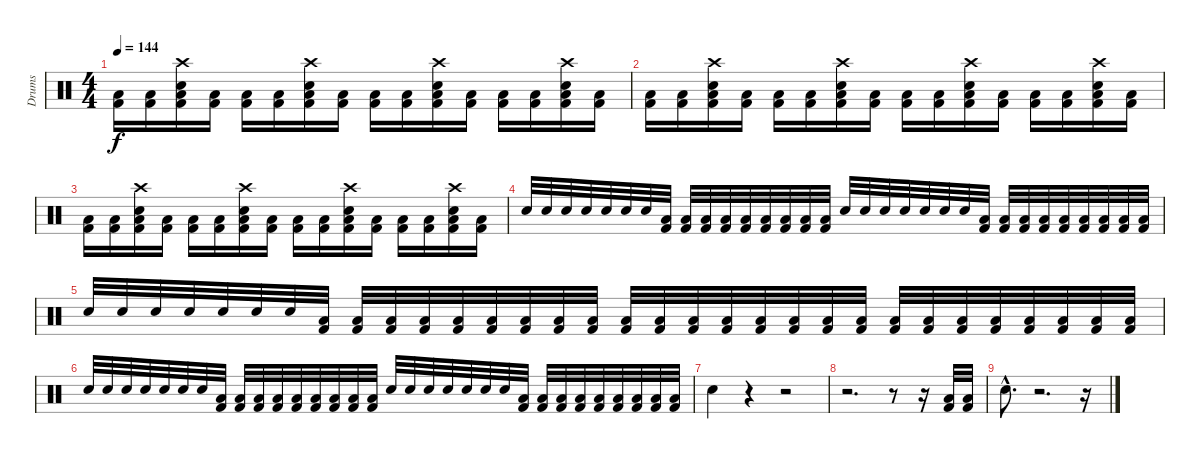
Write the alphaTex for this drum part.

\track ("Drums" "Drums") {instrument percussion}
\staff {score}
\articulation defaults
\ts (4 4)
\tempo 144
\clef neutral
\ks c
("Low Floor Tom (hit)" "Kick (hit) 2").16{dy f} ("Low Floor Tom (hit)" "Kick (hit) 2").16 ("Snare (hit) 2" "Crash high (hit)" "Low Floor Tom (hit)" "Kick (hit) 2").16 ("Low Floor Tom (hit)" "Kick (hit) 2").16 ("Low Floor Tom (hit)" "Kick (hit) 2").16 ("Low Floor Tom (hit)" "Kick (hit) 2").16 ("Snare (hit) 2" "Crash high (hit)" "Low Floor Tom (hit)" "Kick (hit) 2").16 ("Low Floor Tom (hit)" "Kick (hit) 2").16 ("Low Floor Tom (hit)" "Kick (hit) 2").16 ("Low Floor Tom (hit)" "Kick (hit) 2").16 ("Snare (hit) 2" "Crash high (hit)" "Low Floor Tom (hit)" "Kick (hit) 2").16 ("Low Floor Tom (hit)" "Kick (hit) 2").16 ("Low Floor Tom (hit)" "Kick (hit) 2").16 ("Low Floor Tom (hit)" "Kick (hit) 2").16 ("Snare (hit) 2" "Crash high (hit)" "Low Floor Tom (hit)" "Kick (hit) 2").16 ("Low Floor Tom (hit)" "Kick (hit) 2").16 |
("Low Floor Tom (hit)" "Kick (hit) 2").16 ("Low Floor Tom (hit)" "Kick (hit) 2").16 ("Snare (hit) 2" "Crash high (hit)" "Low Floor Tom (hit)" "Kick (hit) 2").16 ("Low Floor Tom (hit)" "Kick (hit) 2").16 ("Low Floor Tom (hit)" "Kick (hit) 2").16 ("Low Floor Tom (hit)" "Kick (hit) 2").16 ("Snare (hit) 2" "Crash high (hit)" "Low Floor Tom (hit)" "Kick (hit) 2").16 ("Low Floor Tom (hit)" "Kick (hit) 2").16 ("Low Floor Tom (hit)" "Kick (hit) 2").16 ("Low Floor Tom (hit)" "Kick (hit) 2").16 ("Snare (hit) 2" "Crash high (hit)" "Low Floor Tom (hit)" "Kick (hit) 2").16 ("Low Floor Tom (hit)" "Kick (hit) 2").16 ("Low Floor Tom (hit)" "Kick (hit) 2").16 ("Low Floor Tom (hit)" "Kick (hit) 2").16 ("Snare (hit) 2" "Crash high (hit)" "Low Floor Tom (hit)" "Kick (hit) 2").16 ("Low Floor Tom (hit)" "Kick (hit) 2").16 |
("Low Floor Tom (hit)" "Kick (hit) 2").16 ("Low Floor Tom (hit)" "Kick (hit) 2").16 ("Snare (hit) 2" "Crash high (hit)" "Low Floor Tom (hit)" "Kick (hit) 2").16 ("Low Floor Tom (hit)" "Kick (hit) 2").16 ("Low Floor Tom (hit)" "Kick (hit) 2").16 ("Low Floor Tom (hit)" "Kick (hit) 2").16 ("Snare (hit) 2" "Crash high (hit)" "Low Floor Tom (hit)" "Kick (hit) 2").16 ("Low Floor Tom (hit)" "Kick (hit) 2").16 ("Low Floor Tom (hit)" "Kick (hit) 2").16 ("Low Floor Tom (hit)" "Kick (hit) 2").16 ("Snare (hit) 2" "Crash high (hit)" "Low Floor Tom (hit)" "Kick (hit) 2").16 ("Low Floor Tom (hit)" "Kick (hit) 2").16 ("Low Floor Tom (hit)" "Kick (hit) 2").16 ("Low Floor Tom (hit)" "Kick (hit) 2").16 ("Snare (hit) 2" "Crash high (hit)" "Low Floor Tom (hit)" "Kick (hit) 2").16 ("Low Floor Tom (hit)" "Kick (hit) 2").16 |
"Snare (hit) 2".32 "Snare (hit) 2".32 "Snare (hit) 2".32 "Snare (hit) 2".32 "Snare (hit) 2".32 "Snare (hit) 2".32 "Snare (hit) 2".32 ("Low Floor Tom (hit)" "Kick (hit) 2").32 ("Low Floor Tom (hit)" "Kick (hit) 2").32 ("Low Floor Tom (hit)" "Kick (hit) 2").32 ("Low Floor Tom (hit)" "Kick (hit) 2").32 ("Low Floor Tom (hit)" "Kick (hit) 2").32 ("Low Floor Tom (hit)" "Kick (hit) 2").32 ("Low Floor Tom (hit)" "Kick (hit) 2").32 ("Low Floor Tom (hit)" "Kick (hit) 2").32 ("Low Floor Tom (hit)" "Kick (hit) 2").32 "Snare (hit) 2".32 "Snare (hit) 2".32 "Snare (hit) 2".32 "Snare (hit) 2".32 "Snare (hit) 2".32 "Snare (hit) 2".32 "Snare (hit) 2".32 ("Low Floor Tom (hit)" "Kick (hit) 2").32 ("Low Floor Tom (hit)" "Kick (hit) 2").32 ("Low Floor Tom (hit)" "Kick (hit) 2").32 ("Low Floor Tom (hit)" "Kick (hit) 2").32 ("Low Floor Tom (hit)" "Kick (hit) 2").32 ("Low Floor Tom (hit)" "Kick (hit) 2").32 ("Low Floor Tom (hit)" "Kick (hit) 2").32 ("Low Floor Tom (hit)" "Kick (hit) 2").32 ("Low Floor Tom (hit)" "Kick (hit) 2").32 |
"Snare (hit) 2".32 "Snare (hit) 2".32 "Snare (hit) 2".32 "Snare (hit) 2".32 "Snare (hit) 2".32 "Snare (hit) 2".32 "Snare (hit) 2".32 ("Low Floor Tom (hit)" "Kick (hit) 2").32 ("Low Floor Tom (hit)" "Kick (hit) 2").32 ("Low Floor Tom (hit)" "Kick (hit) 2").32 ("Low Floor Tom (hit)" "Kick (hit) 2").32 ("Low Floor Tom (hit)" "Kick (hit) 2").32 ("Low Floor Tom (hit)" "Kick (hit) 2").32 ("Low Floor Tom (hit)" "Kick (hit) 2").32 ("Low Floor Tom (hit)" "Kick (hit) 2").32 ("Low Floor Tom (hit)" "Kick (hit) 2").32 ("Low Floor Tom (hit)" "Kick (hit) 2").32 ("Low Floor Tom (hit)" "Kick (hit) 2").32 ("Low Floor Tom (hit)" "Kick (hit) 2").32 ("Low Floor Tom (hit)" "Kick (hit) 2").32 ("Low Floor Tom (hit)" "Kick (hit) 2").32 ("Low Floor Tom (hit)" "Kick (hit) 2").32 ("Low Floor Tom (hit)" "Kick (hit) 2").32 ("Low Floor Tom (hit)" "Kick (hit) 2").32 ("Low Floor Tom (hit)" "Kick (hit) 2").32 ("Low Floor Tom (hit)" "Kick (hit) 2").32 ("Low Floor Tom (hit)" "Kick (hit) 2").32 ("Low Floor Tom (hit)" "Kick (hit) 2").32 ("Low Floor Tom (hit)" "Kick (hit) 2").32 ("Low Floor Tom (hit)" "Kick (hit) 2").32 ("Low Floor Tom (hit)" "Kick (hit) 2").32 ("Low Floor Tom (hit)" "Kick (hit) 2").32 |
"Snare (hit) 2".32 "Snare (hit) 2".32 "Snare (hit) 2".32 "Snare (hit) 2".32 "Snare (hit) 2".32 "Snare (hit) 2".32 "Snare (hit) 2".32 ("Low Floor Tom (hit)" "Kick (hit) 2").32 ("Low Floor Tom (hit)" "Kick (hit) 2").32 ("Low Floor Tom (hit)" "Kick (hit) 2").32 ("Low Floor Tom (hit)" "Kick (hit) 2").32 ("Low Floor Tom (hit)" "Kick (hit) 2").32 ("Low Floor Tom (hit)" "Kick (hit) 2").32 ("Low Floor Tom (hit)" "Kick (hit) 2").32 ("Low Floor Tom (hit)" "Kick (hit) 2").32 ("Low Floor Tom (hit)" "Kick (hit) 2").32 "Snare (hit) 2".32 "Snare (hit) 2".32 "Snare (hit) 2".32 "Snare (hit) 2".32 "Snare (hit) 2".32 "Snare (hit) 2".32 "Snare (hit) 2".32 ("Low Floor Tom (hit)" "Kick (hit) 2").32 ("Low Floor Tom (hit)" "Kick (hit) 2").32 ("Low Floor Tom (hit)" "Kick (hit) 2").32 ("Low Floor Tom (hit)" "Kick (hit) 2").32 ("Low Floor Tom (hit)" "Kick (hit) 2").32 ("Low Floor Tom (hit)" "Kick (hit) 2").32 ("Low Floor Tom (hit)" "Kick (hit) 2").32 ("Low Floor Tom (hit)" "Kick (hit) 2").32 ("Low Floor Tom (hit)" "Kick (hit) 2").32 |
"Snare (hit) 2".4 r.4 r.2 |
r.2{d} r.8 r.16 ("Low Floor Tom (hit)" "Kick (hit) 2").32 ("Low Floor Tom (hit)" "Kick (hit) 2").32 |
"Snare (hit) 2"{hac}.8{d} r.2{d} r.16
